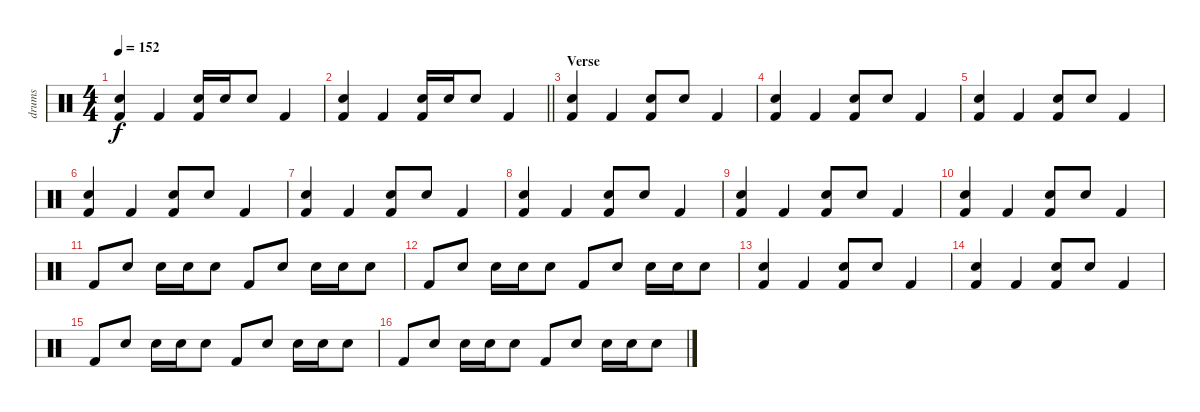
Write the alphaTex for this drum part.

\track ("drums" "drums") {instrument percussion}
\staff {score}
\articulation defaults
\ts (4 4)
\tempo 152
\clef neutral
\ks c
("Snare (hit) 2" "Kick (hit) 2").4{dy f} "Kick (hit) 2".4 ("Snare (hit) 2" "Kick (hit) 2").16 "Snare (hit) 2".16 "Snare (hit) 2".8 "Kick (hit) 2".4 |
\barLineRight lightlight
("Snare (hit) 2" "Kick (hit) 2").4 "Kick (hit) 2".4 ("Snare (hit) 2" "Kick (hit) 2").16 "Snare (hit) 2".16 "Snare (hit) 2".8 "Kick (hit) 2".4 |
\section ("" "Verse")
("Snare (hit) 2" "Kick (hit) 2").4 "Kick (hit) 2".4 ("Snare (hit) 2" "Kick (hit) 2").8 "Snare (hit) 2".8 "Kick (hit) 2".4 |
("Snare (hit) 2" "Kick (hit) 2").4 "Kick (hit) 2".4 ("Snare (hit) 2" "Kick (hit) 2").8 "Snare (hit) 2".8 "Kick (hit) 2".4 |
("Snare (hit) 2" "Kick (hit) 2").4 "Kick (hit) 2".4 ("Snare (hit) 2" "Kick (hit) 2").8 "Snare (hit) 2".8 "Kick (hit) 2".4 |
("Snare (hit) 2" "Kick (hit) 2").4 "Kick (hit) 2".4 ("Snare (hit) 2" "Kick (hit) 2").8 "Snare (hit) 2".8 "Kick (hit) 2".4 |
("Snare (hit) 2" "Kick (hit) 2").4 "Kick (hit) 2".4 ("Snare (hit) 2" "Kick (hit) 2").8 "Snare (hit) 2".8 "Kick (hit) 2".4 |
("Snare (hit) 2" "Kick (hit) 2").4 "Kick (hit) 2".4 ("Snare (hit) 2" "Kick (hit) 2").8 "Snare (hit) 2".8 "Kick (hit) 2".4 |
("Snare (hit) 2" "Kick (hit) 2").4 "Kick (hit) 2".4 ("Snare (hit) 2" "Kick (hit) 2").8 "Snare (hit) 2".8 "Kick (hit) 2".4 |
("Snare (hit) 2" "Kick (hit) 2").4 "Kick (hit) 2".4 ("Snare (hit) 2" "Kick (hit) 2").8 "Snare (hit) 2".8 "Kick (hit) 2".4 |
"Kick (hit) 2".8 "Snare (hit) 2".8 "Snare (hit) 2".16 "Snare (hit) 2".16 "Snare (hit) 2".8 "Kick (hit) 2".8 "Snare (hit) 2".8 "Snare (hit) 2".16 "Snare (hit) 2".16 "Snare (hit) 2".8 |
"Kick (hit) 2".8 "Snare (hit) 2".8 "Snare (hit) 2".16 "Snare (hit) 2".16 "Snare (hit) 2".8 "Kick (hit) 2".8 "Snare (hit) 2".8 "Snare (hit) 2".16 "Snare (hit) 2".16 "Snare (hit) 2".8 |
("Snare (hit) 2" "Kick (hit) 2").4 "Kick (hit) 2".4 ("Snare (hit) 2" "Kick (hit) 2").8 "Snare (hit) 2".8 "Kick (hit) 2".4 |
("Snare (hit) 2" "Kick (hit) 2").4 "Kick (hit) 2".4 ("Snare (hit) 2" "Kick (hit) 2").8 "Snare (hit) 2".8 "Kick (hit) 2".4 |
"Kick (hit) 2".8 "Snare (hit) 2".8 "Snare (hit) 2".16 "Snare (hit) 2".16 "Snare (hit) 2".8 "Kick (hit) 2".8 "Snare (hit) 2".8 "Snare (hit) 2".16 "Snare (hit) 2".16 "Snare (hit) 2".8 |
"Kick (hit) 2".8 "Snare (hit) 2".8 "Snare (hit) 2".16 "Snare (hit) 2".16 "Snare (hit) 2".8 "Kick (hit) 2".8 "Snare (hit) 2".8 "Snare (hit) 2".16 "Snare (hit) 2".16 "Snare (hit) 2".8
